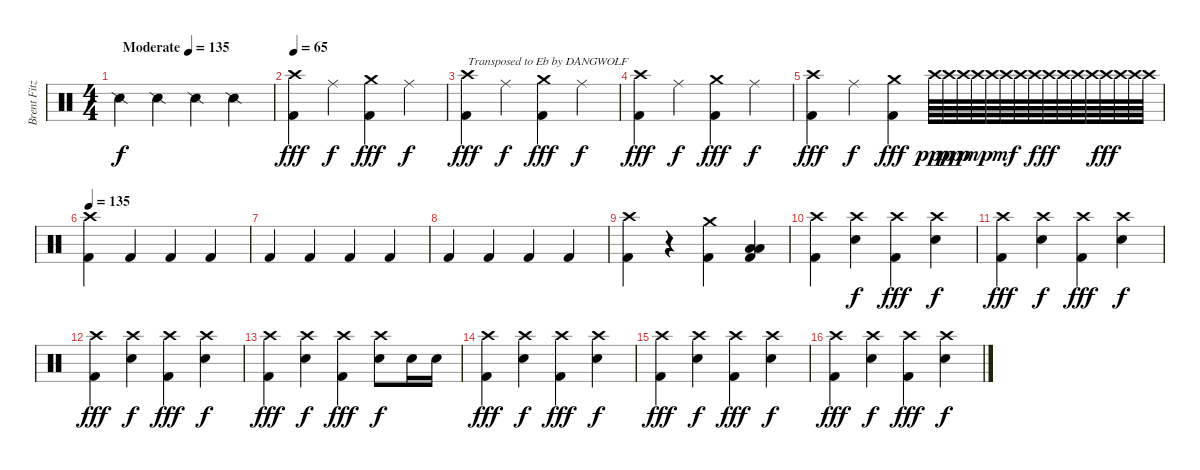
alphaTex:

\track ("Brent Fitz" "Brent Fitz") {instrument percussion}
\staff {score}
\articulation defaults
\ts (4 4)
\tempo (135 "Moderate")
\clef neutral
\ks c "Snare (side stick) 2".4{dy f} "Snare (side stick) 2".4 "Snare (side stick) 2".4 "Snare (side stick) 2".4
|
\tempo 65
("Crash high (hit)" "Kick (hit) 2").4{dy fff} "Ride (middle)".4{dy f} ("Crash medium (hit)" "Kick (hit) 2").4{dy fff} "Ride (middle)".4{dy f} |
("Crash high (hit)" "Kick (hit) 2").4{txt "Transposed to Eb by DANGWOLF" dy fff} "Ride (middle)".4{dy f} ("Crash medium (hit)" "Kick (hit) 2").4{dy fff} "Ride (middle)".4{dy f} |
("Crash high (hit)" "Kick (hit) 2").4{dy fff} "Ride (middle)".4{dy f} ("Crash medium (hit)" "Kick (hit) 2").4{dy fff} "Ride (middle)".4{dy f} |
("Crash high (hit)" "Kick (hit) 2").4{dy fff} "Ride (middle)".4{dy f} ("Crash medium (hit)" "Kick (hit) 2").4{dy fff} "Crash high (hit)".64{dy ppp} "Crash high (hit)".64{dy pp} "Crash high (hit)".64{dy p} "Crash high (hit)".64{dy mp} "Crash high (hit)".64 "Crash high (hit)".64{dy mf} "Crash high (hit)".64 "Crash high (hit)".64{dy f} "Crash high (hit)".64{dy ff} "Crash high (hit)".64 "Crash high (hit)".64 "Crash high (hit)".64 "Crash high (hit)".64{dy fff} "Crash high (hit)".64 "Crash high (hit)".64 "Crash high (hit)".64 |
\tempo 135
("Crash high (hit)" "Kick (hit) 2").4 "Kick (hit) 2".4 "Kick (hit) 2".4 "Kick (hit) 2".4 |
"Kick (hit) 2".4 "Kick (hit) 2".4 "Kick (hit) 2".4 "Kick (hit) 2".4 |
"Kick (hit) 2".4 "Kick (hit) 2".4 "Kick (hit) 2".4 "Kick (hit) 2".4 |
("Crash high (hit)" "Kick (hit) 2").4 r.4 ("Crash medium (hit)" "Kick (hit) 2").4 ("Low Tom (hit)" "Low Floor Tom (hit)" "Kick (hit) 2").4 |
("Crash high (hit)" "Kick (hit) 2").4 ("Crash high (hit)" "Snare (hit) 2").4{dy f} ("Crash high (hit)" "Kick (hit) 2").4{dy fff} ("Crash high (hit)" "Snare (hit) 2").4{dy f} |
("Crash high (hit)" "Kick (hit) 2").4{dy fff} ("Crash high (hit)" "Snare (hit) 2").4{dy f} ("Crash high (hit)" "Kick (hit) 2").4{dy fff} ("Crash high (hit)" "Snare (hit) 2").4{dy f} |
("Crash high (hit)" "Kick (hit) 2").4{dy fff} ("Crash high (hit)" "Snare (hit) 2").4{dy f} ("Crash high (hit)" "Kick (hit) 2").4{dy fff} ("Crash high (hit)" "Snare (hit) 2").4{dy f} |
("Crash high (hit)" "Kick (hit) 2").4{dy fff} ("Crash high (hit)" "Snare (hit) 2").4{dy f} ("Crash high (hit)" "Kick (hit) 2").4{dy fff} ("Crash high (hit)" "Snare (hit) 2").8{dy f} "Snare (hit) 2".16 "Snare (hit) 2".16 |
("Crash high (hit)" "Kick (hit) 2").4{dy fff} ("Crash high (hit)" "Snare (hit) 2").4{dy f} ("Crash high (hit)" "Kick (hit) 2").4{dy fff} ("Crash high (hit)" "Snare (hit) 2").4{dy f} |
("Crash high (hit)" "Kick (hit) 2").4{dy fff} ("Crash high (hit)" "Snare (hit) 2").4{dy f} ("Crash high (hit)" "Kick (hit) 2").4{dy fff} ("Crash high (hit)" "Snare (hit) 2").4{dy f} |
("Crash high (hit)" "Kick (hit) 2").4{dy fff} ("Crash high (hit)" "Snare (hit) 2").4{dy f} ("Crash high (hit)" "Kick (hit) 2").4{dy fff} ("Crash high (hit)" "Snare (hit) 2").4{dy f}
